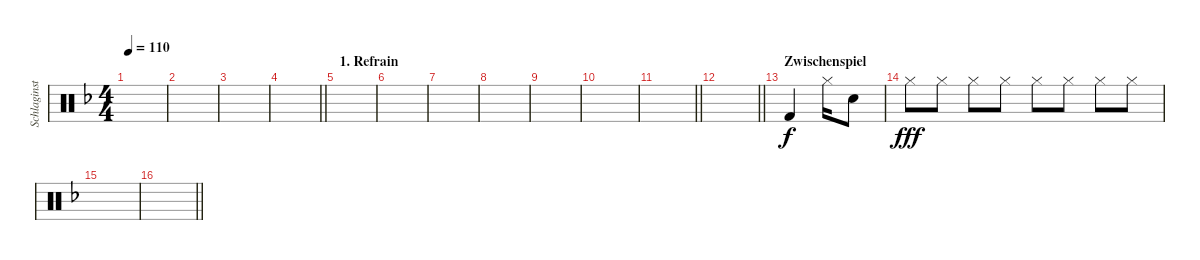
\track ("Schlaginstrumente - Auswahl" "Schlaginst") {mute instrument percussion}
\staff {score}
\articulation defaults
\ts (4 4)
\tempo 110
\clef neutral
\ks f
|
|
|
\barLineRight lightlight
|
\section ("" "1. Refrain")
|
|
|
|
|
|
\barLineRight lightlight
|
\barLineRight lightlight
|
\section ("" "Zwischenspiel")
"Kick (hit) 2".4 "Hi-Hat (closed)".16 "Electric Snare (hit)".8 |
"Hi-Hat (closed)".8{dy fff} "Hi-Hat (closed)".8 "Hi-Hat (closed)".8 "Hi-Hat (closed)".8 "Hi-Hat (closed)".8 "Hi-Hat (closed)".8 "Hi-Hat (closed)".8 "Hi-Hat (closed)".8 |
|
\barLineRight lightlight
